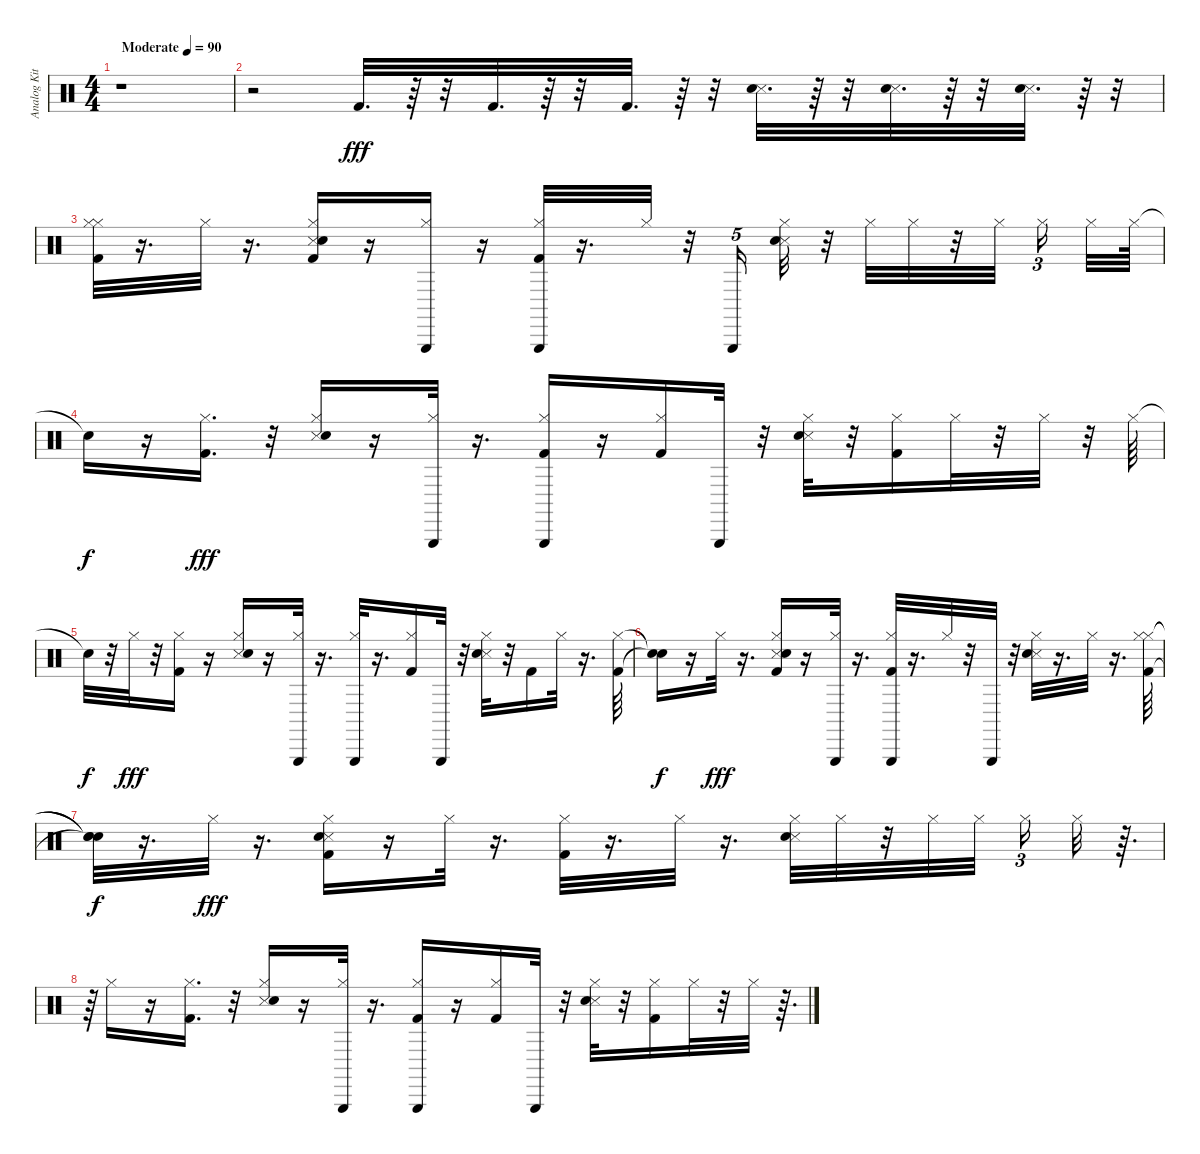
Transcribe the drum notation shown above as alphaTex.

\track ("Analog Kit" "Analog Kit") {instrument percussion}
\staff {score}
\articulation defaults
\ts (4 4)
\tempo (90 "Moderate")
\clef neutral
\ks c
r.1{dy fff} |
r.2 "Kick (hit) 2".32{d} r.64 r.32 "Kick (hit) 2".32{d} r.64 r.32 "Kick (hit) 2".32{d} r.64 r.32 ("Snare (side stick) 3" "Electric Snare (hit)").32{d} r.64 r.32 ("Snare (side stick) 3" "Electric Snare (hit)").32{d} r.64 r.32 ("Snare (side stick) 3" "Electric Snare (hit)").32{d} r.64 r.32 |
("Hi-Hat (closed)" "Hi-Hat (closed)" "Kick (hit) 2").32 r.16{d} "Hi-Hat (closed)".32 r.16{d} ("Hi-Hat (closed)" "Snare (side stick) 3" "Kick (hit) 2" "Electric Snare (hit)").16 r.16 ("Hi-Hat (closed)" "Triangle (hit)").16 r.16 ("Kick (hit) 2" "Hi-Hat (closed)" "Triangle (hit)").32 r.16{d} "Hi-Hat (closed)".32 r.32 "Triangle (hit)".16{tu (5 4)} ("Hi-Hat (closed)" "Snare (side stick) 3" "Electric Snare (hit)").32 r.32 "Hi-Hat (closed)".32 "Hi-Hat (closed)".32 r.32 "Hi-Hat (closed)".32{beam splitsecondary} "Hi-Hat (closed)".16{tu (3 2) beam splitsecondary} "Hi-Hat (closed)".32 "Hi-Hat (closed)".64 |
"Snare (hit)"{t}.16{dy f} r.16 ("Kick (hit) 2" "Hi-Hat (closed)").16{d dy fff} r.32 ("Snare (side stick) 3" "Electric Snare (hit)" "Hi-Hat (closed)").16 r.16 ("Hi-Hat (closed)" "Triangle (hit)").32 r.16{d} ("Hi-Hat (closed)" "Kick (hit) 2" "Triangle (hit)").16 r.16 ("Kick (hit) 2" "Hi-Hat (closed)").16 "Triangle (hit)".32 r.32 ("Snare (side stick) 3" "Electric Snare (hit)" "Hi-Hat (closed)").32 r.32 ("Kick (hit) 2" "Hi-Hat (closed)").16 "Hi-Hat (closed)".32 r.32 "Hi-Hat (closed)".32 r.32 "Hi-Hat (closed)".64 |
"Snare (hit)"{t}.32{dy f} r.32 "Hi-Hat (closed)".32{dy fff} r.32 ("Hi-Hat (closed)" "Kick (hit) 2").16 r.16 ("Snare (side stick) 3" "Electric Snare (hit)" "Hi-Hat (closed)").16 r.16 ("Hi-Hat (closed)" "Triangle (hit)").32 r.16{d} ("Hi-Hat (closed)" "Triangle (hit)").32 r.16{d} ("Kick (hit) 2" "Hi-Hat (closed)").16 "Triangle (hit)".32 r.32 ("Snare (side stick) 3" "Electric Snare (hit)" "Hi-Hat (closed)").32 r.32 "Kick (hit) 2".16 "Hi-Hat (closed)".32 r.16{d} ("Hi-Hat (closed)" "Kick (hit) 2").64 |
("Snare (hit)"{t} "Snare (hit)"{t}).16{dy f} r.16 "Hi-Hat (closed)".32{dy fff} r.16{d} ("Snare (side stick) 3" "Kick (hit) 2" "Electric Snare (hit)" "Hi-Hat (closed)").16 r.16 ("Triangle (hit)" "Hi-Hat (closed)").32 r.16{d} ("Kick (hit) 2" "Hi-Hat (closed)" "Triangle (hit)").32 r.16{d} "Hi-Hat (closed)".32 r.32 "Triangle (hit)".32 r.32 ("Snare (side stick) 3" "Electric Snare (hit)" "Hi-Hat (closed)").32 r.16{d} "Hi-Hat (closed)".32 r.16{d} ("Hi-Hat (closed)" "Hi-Hat (closed)" "Kick (hit) 2").64 |
("Snare (hit)"{t} "Snare (hit)"{t} "Snare (hit)"{t}).32{dy f} r.16{d} "Hi-Hat (closed)".32{dy fff} r.16{d} ("Hi-Hat (closed)" "Snare (side stick) 3" "Kick (hit) 2" "Electric Snare (hit)").16 r.16 "Hi-Hat (closed)".32 r.16{d} ("Kick (hit) 2" "Hi-Hat (closed)").32 r.16{d} "Hi-Hat (closed)".32 r.16{d} ("Hi-Hat (closed)" "Snare (side stick) 3" "Electric Snare (hit)").32 "Hi-Hat (closed)".32 r.32 "Hi-Hat (closed)".32 "Hi-Hat (closed)".32{beam splitsecondary} "Hi-Hat (closed)".16{tu (3 2)} "Hi-Hat (closed)".32 r.64{d} |
r.64 "Hi-Hat (closed)".16 r.16 ("Kick (hit) 2" "Hi-Hat (closed)").16{d} r.32 ("Snare (side stick) 3" "Electric Snare (hit)" "Hi-Hat (closed)").16 r.16 ("Hi-Hat (closed)" "Triangle (hit)").32 r.16{d} ("Hi-Hat (closed)" "Kick (hit) 2" "Triangle (hit)").16 r.16 ("Kick (hit) 2" "Hi-Hat (closed)").16 "Triangle (hit)".32 r.32 ("Snare (side stick) 3" "Electric Snare (hit)" "Hi-Hat (closed)").32 r.32 ("Kick (hit) 2" "Hi-Hat (closed)").16 "Hi-Hat (closed)".32 r.32 "Hi-Hat (closed)".32 r.64{d}
